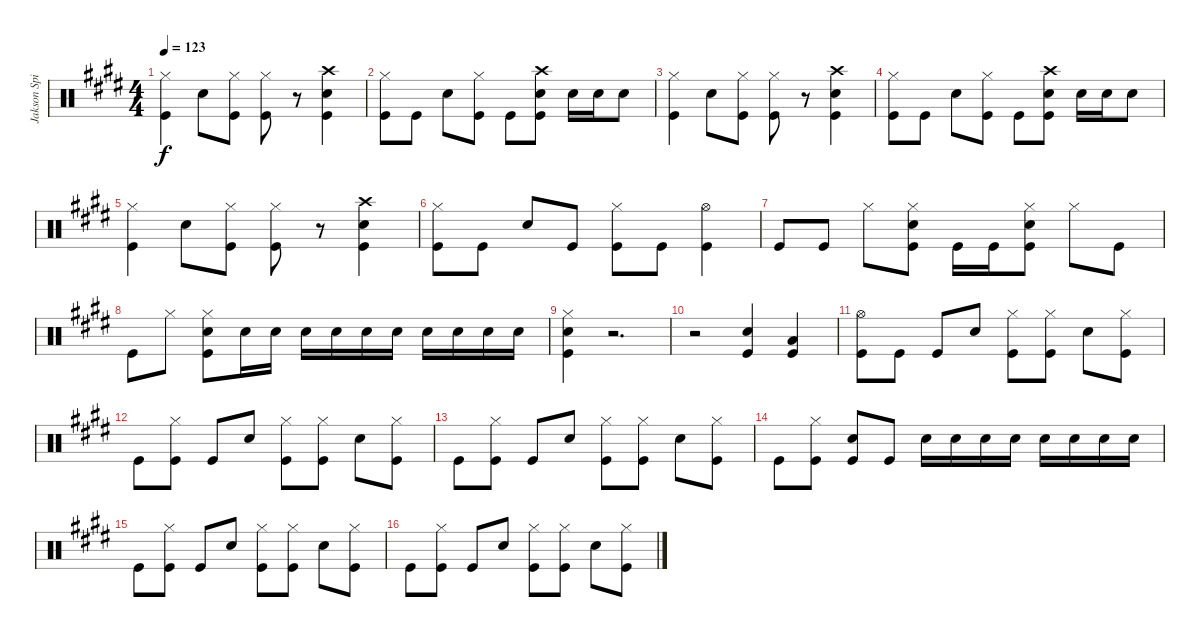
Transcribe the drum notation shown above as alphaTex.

\track ("Jakson Spires Drums" "Jakson Spi") {instrument percussion}
\staff {score}
\articulation defaults
\ts (4 4)
\tempo 123
\clef neutral
\ks e
("Hi-Hat (closed)" "Kick (hit)").4{dy f} "Snare (hit) 2".8 ("Hi-Hat (closed)" "Kick (hit)").8 ("Hi-Hat (closed)" "Kick (hit)").8 r.8 ("Crash high (hit)" "Snare (hit) 2" "Kick (hit)").4 |
("Hi-Hat (closed)" "Kick (hit)").8 "Kick (hit)".8 "Snare (hit) 2".8 ("Hi-Hat (closed)" "Kick (hit)").8 "Kick (hit)".8 ("Crash high (hit)" "Snare (hit) 2" "Kick (hit)").8 "Snare (hit) 2".16 "Snare (hit) 2".16 "Snare (hit) 2".8 |
("Hi-Hat (closed)" "Kick (hit)").4 "Snare (hit) 2".8 ("Hi-Hat (closed)" "Kick (hit)").8 ("Hi-Hat (closed)" "Kick (hit)").8 r.8 ("Crash high (hit)" "Snare (hit) 2" "Kick (hit)").4 |
("Hi-Hat (closed)" "Kick (hit)").8 "Kick (hit)".8 "Snare (hit) 2".8 ("Hi-Hat (closed)" "Kick (hit)").8 "Kick (hit)".8 ("Crash high (hit)" "Snare (hit) 2" "Kick (hit)").8 "Snare (hit) 2".16 "Snare (hit) 2".16 "Snare (hit) 2".8 |
("Hi-Hat (closed)" "Kick (hit)").4 "Snare (hit) 2".8 ("Hi-Hat (closed)" "Kick (hit)").8 ("Hi-Hat (closed)" "Kick (hit)").8 r.8 ("Crash high (hit)" "Snare (hit) 2" "Kick (hit)").4 |
("Hi-Hat (closed)" "Kick (hit)").8 "Kick (hit)".8 "Snare (hit) 2".8 "Kick (hit)".8 ("Hi-Hat (closed)" "Kick (hit)").8 "Kick (hit)".8 ("Hi-Hat (open)" "Kick (hit)").4 |
"Kick (hit)".8 "Kick (hit)".8 "Hi-Hat (closed)".8 ("Hi-Hat (closed)" "Snare (hit) 2" "Kick (hit)").8 "Kick (hit)".16 "Kick (hit)".16 ("Hi-Hat (closed)" "Snare (hit) 2" "Kick (hit)").8 "Hi-Hat (closed)".8 "Kick (hit)".8 |
"Kick (hit)".8 "Hi-Hat (closed)".8 ("Hi-Hat (closed)" "Snare (hit) 2" "Kick (hit)").8 "Snare (hit) 2".16 "Snare (hit) 2".16 "Snare (hit) 2".16 "Snare (hit) 2".16 "Snare (hit) 2".16 "Snare (hit) 2".16 "Snare (hit) 2".16 "Snare (hit) 2".16 "Snare (hit) 2".16 "Snare (hit) 2".16 |
("Hi-Hat (closed)" "Snare (hit) 2" "Kick (hit)").4 r.2{d} |
r.2 ("Snare (hit) 2" "Kick (hit)").4 ("Low Tom (hit)" "Kick (hit)").4 |
("Hi-Hat (open)" "Kick (hit)").8 "Kick (hit)".8 "Kick (hit)".8 "Snare (hit) 2".8 ("Hi-Hat (closed)" "Kick (hit)").8 ("Hi-Hat (closed)" "Kick (hit)").8 "Snare (hit) 2".8 ("Hi-Hat (closed)" "Kick (hit)").8 |
"Kick (hit)".8 ("Hi-Hat (closed)" "Kick (hit)").8 "Kick (hit)".8 "Snare (hit) 2".8 ("Hi-Hat (closed)" "Kick (hit)").8 ("Hi-Hat (closed)" "Kick (hit)").8 "Snare (hit) 2".8 ("Hi-Hat (closed)" "Kick (hit)").8 |
"Kick (hit)".8 ("Hi-Hat (closed)" "Kick (hit)").8 "Kick (hit)".8 "Snare (hit) 2".8 ("Hi-Hat (closed)" "Kick (hit)").8 ("Hi-Hat (closed)" "Kick (hit)").8 "Snare (hit) 2".8 ("Hi-Hat (closed)" "Kick (hit)").8 |
"Kick (hit)".8 ("Hi-Hat (closed)" "Kick (hit)").8 ("Snare (hit) 2" "Kick (hit)").8 "Kick (hit)".8 "Snare (hit) 2".16 "Snare (hit) 2".16 "Snare (hit) 2".16 "Snare (hit) 2".16 "Snare (hit) 2".16 "Snare (hit) 2".16 "Snare (hit) 2".16 "Snare (hit) 2".16 |
"Kick (hit)".8 ("Hi-Hat (closed)" "Kick (hit)").8 "Kick (hit)".8 "Snare (hit) 2".8 ("Hi-Hat (closed)" "Kick (hit)").8 ("Hi-Hat (closed)" "Kick (hit)").8 "Snare (hit) 2".8 ("Hi-Hat (closed)" "Kick (hit)").8 |
"Kick (hit)".8 ("Hi-Hat (closed)" "Kick (hit)").8 "Kick (hit)".8 "Snare (hit) 2".8 ("Hi-Hat (closed)" "Kick (hit)").8 ("Hi-Hat (closed)" "Kick (hit)").8 "Snare (hit) 2".8 ("Hi-Hat (closed)" "Kick (hit)").8
